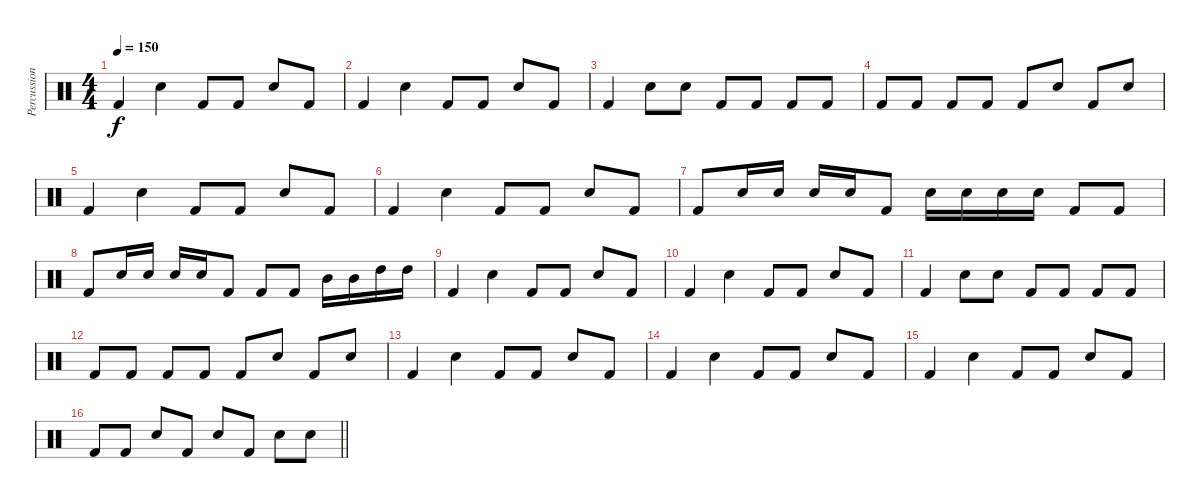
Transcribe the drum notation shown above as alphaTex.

\track ("Percussion" "Percussion") {instrument percussion}
\staff {score}
\articulation defaults
\ts (4 4)
\tempo 150
\clef neutral
\ks c "Kick (hit) 2".4{dy f} "Snare (hit) 2".4 "Kick (hit) 2".8 "Kick (hit) 2".8 "Snare (hit) 2".8 "Kick (hit) 2".8
|
"Kick (hit) 2".4 "Snare (hit) 2".4 "Kick (hit) 2".8 "Kick (hit) 2".8 "Snare (hit) 2".8 "Kick (hit) 2".8 |
"Kick (hit) 2".4 "Snare (hit) 2".8 "Snare (hit) 2".8 "Kick (hit) 2".8 "Kick (hit) 2".8 "Kick (hit) 2".8 "Kick (hit) 2".8 |
"Kick (hit) 2".8 "Kick (hit) 2".8 "Kick (hit) 2".8 "Kick (hit) 2".8 "Kick (hit) 2".8 "Snare (hit) 2".8 "Kick (hit) 2".8 "Snare (hit) 2".8 |
"Kick (hit) 2".4 "Snare (hit) 2".4 "Kick (hit) 2".8 "Kick (hit) 2".8 "Snare (hit) 2".8 "Kick (hit) 2".8 |
"Kick (hit) 2".4 "Snare (hit) 2".4 "Kick (hit) 2".8 "Kick (hit) 2".8 "Snare (hit) 2".8 "Kick (hit) 2".8 |
"Kick (hit) 2".8 "Snare (hit) 2".16 "Snare (hit) 2".16 "Snare (hit) 2".16 "Snare (hit) 2".16 "Kick (hit) 2".8 "Snare (hit) 2".16 "Snare (hit) 2".16 "Snare (hit) 2".16 "Snare (hit) 2".16 "Kick (hit) 2".8 "Kick (hit) 2".8 |
"Kick (hit) 2".8 "Snare (hit) 2".16 "Snare (hit) 2".16 "Snare (hit) 2".16 "Snare (hit) 2".16 "Kick (hit) 2".8 "Kick (hit) 2".8 "Kick (hit) 2".8 "Mid Tom (hit)".16 "Mid Tom (hit)".16 "High Tom (hit)".16 "High Tom (hit)".16 |
"Kick (hit) 2".4 "Snare (hit) 2".4 "Kick (hit) 2".8 "Kick (hit) 2".8 "Snare (hit) 2".8 "Kick (hit) 2".8 |
"Kick (hit) 2".4 "Snare (hit) 2".4 "Kick (hit) 2".8 "Kick (hit) 2".8 "Snare (hit) 2".8 "Kick (hit) 2".8 |
"Kick (hit) 2".4 "Snare (hit) 2".8 "Snare (hit) 2".8 "Kick (hit) 2".8 "Kick (hit) 2".8 "Kick (hit) 2".8 "Kick (hit) 2".8 |
"Kick (hit) 2".8 "Kick (hit) 2".8 "Kick (hit) 2".8 "Kick (hit) 2".8 "Kick (hit) 2".8 "Snare (hit) 2".8 "Kick (hit) 2".8 "Snare (hit) 2".8 |
"Kick (hit) 2".4 "Snare (hit) 2".4 "Kick (hit) 2".8 "Kick (hit) 2".8 "Snare (hit) 2".8 "Kick (hit) 2".8 |
"Kick (hit) 2".4 "Snare (hit) 2".4 "Kick (hit) 2".8 "Kick (hit) 2".8 "Snare (hit) 2".8 "Kick (hit) 2".8 |
"Kick (hit) 2".4 "Snare (hit) 2".4 "Kick (hit) 2".8 "Kick (hit) 2".8 "Snare (hit) 2".8 "Kick (hit) 2".8 |
\barLineRight lightlight "Kick (hit) 2".8 "Kick (hit) 2".8 "Snare (hit) 2".8 "Kick (hit) 2".8 "Snare (hit) 2".8 "Kick (hit) 2".8 "Snare (hit) 2".8 "Snare (hit) 2".8
